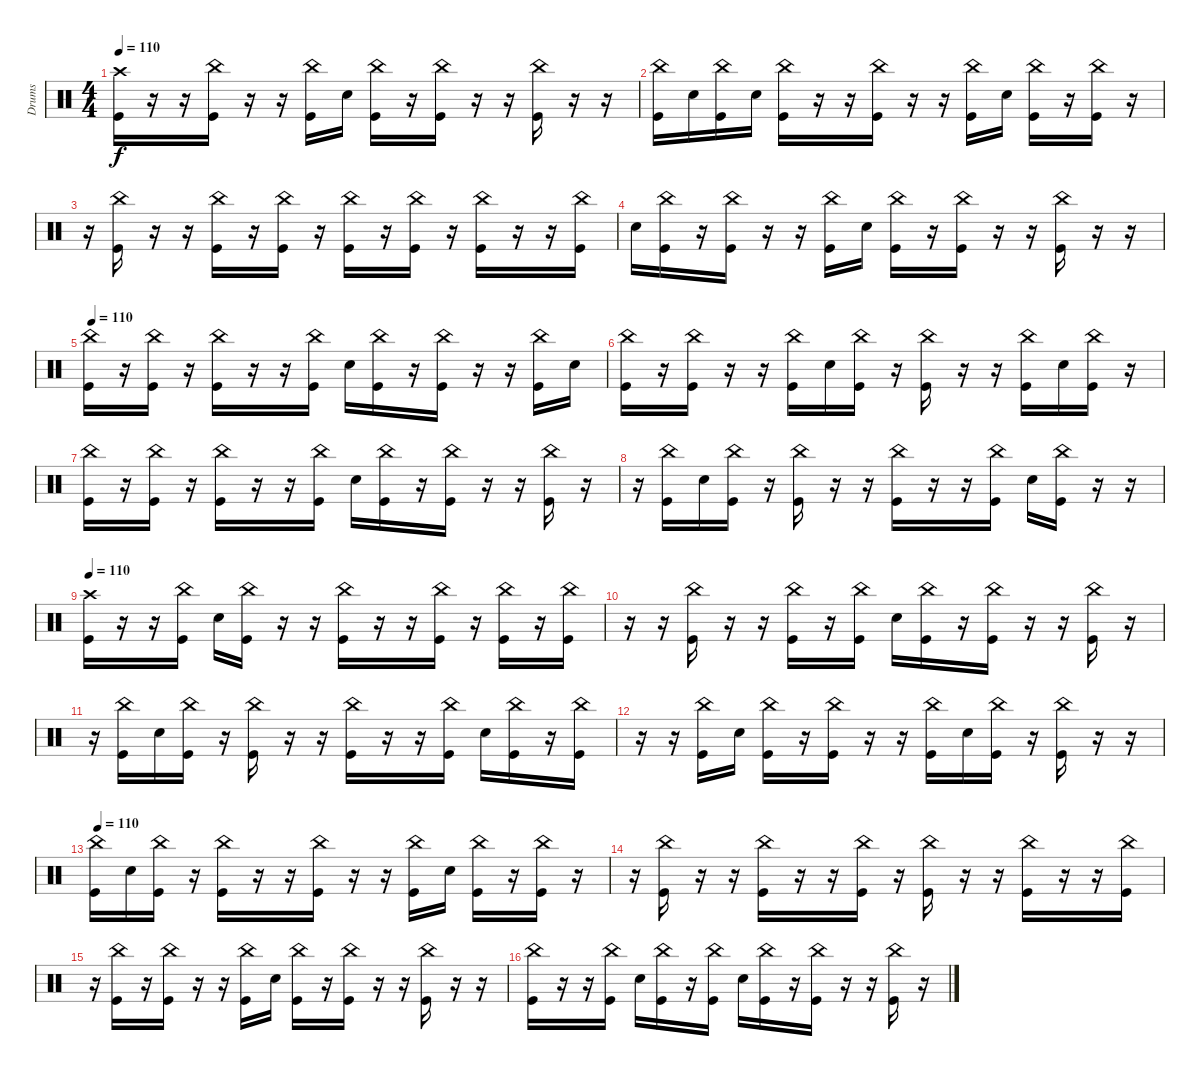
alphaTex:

\track ("Drums" "Drums") {instrument percussion}
\staff {score}
\articulation defaults
\ts (4 4)
\tempo 110
\clef neutral
\ks c
("Crash high (hit)" "Kick (hit)").16{dy f} r.16 r.16 ("China (hit)" "Kick (hit)").16 r.16 r.16 ("China (hit)" "Kick (hit)").16 "Snare (hit) 2".16 ("China (hit)" "Kick (hit)").16 r.16 ("China (hit)" "Kick (hit)").16 r.16 r.16 ("China (hit)" "Kick (hit)").16 r.16 r.16 |
("China (hit)" "Kick (hit)").16 "Snare (hit) 2".16 ("China (hit)" "Kick (hit)").16 "Snare (hit) 2".16 ("China (hit)" "Kick (hit)").16 r.16 r.16 ("China (hit)" "Kick (hit)").16 r.16 r.16 ("China (hit)" "Kick (hit)").16 "Snare (hit) 2".16 ("China (hit)" "Kick (hit)").16 r.16 ("China (hit)" "Kick (hit)").16 r.16 |
r.16 ("China (hit)" "Kick (hit)").16 r.16 r.16 ("China (hit)" "Kick (hit)").16 r.16 ("China (hit)" "Kick (hit)").16 r.16 ("China (hit)" "Kick (hit)").16 r.16 ("China (hit)" "Kick (hit)").16 r.16 ("China (hit)" "Kick (hit)").16 r.16 r.16 ("China (hit)" "Kick (hit)").16 |
"Snare (hit) 2".16 ("China (hit)" "Kick (hit)").16 r.16 ("China (hit)" "Kick (hit)").16 r.16 r.16 ("China (hit)" "Kick (hit)").16 "Snare (hit) 2".16 ("China (hit)" "Kick (hit)").16 r.16 ("China (hit)" "Kick (hit)").16 r.16 r.16 ("China (hit)" "Kick (hit)").16 r.16 r.16 |
\tempo 110
("China (hit)" "Kick (hit)").16 r.16 ("China (hit)" "Kick (hit)").16 r.16 ("China (hit)" "Kick (hit)").16 r.16 r.16 ("China (hit)" "Kick (hit)").16 "Snare (hit) 2".16 ("China (hit)" "Kick (hit)").16 r.16 ("China (hit)" "Kick (hit)").16 r.16 r.16 ("China (hit)" "Kick (hit)").16 "Snare (hit) 2".16 |
("China (hit)" "Kick (hit)").16 r.16 ("China (hit)" "Kick (hit)").16 r.16 r.16 ("China (hit)" "Kick (hit)").16 "Snare (hit) 2".16 ("China (hit)" "Kick (hit)").16 r.16 ("China (hit)" "Kick (hit)").16 r.16 r.16 ("China (hit)" "Kick (hit)").16 "Snare (hit) 2".16 ("China (hit)" "Kick (hit)").16 r.16 |
("China (hit)" "Kick (hit)").16 r.16 ("China (hit)" "Kick (hit)").16 r.16 ("China (hit)" "Kick (hit)").16 r.16 r.16 ("China (hit)" "Kick (hit)").16 "Snare (hit) 2".16 ("China (hit)" "Kick (hit)").16 r.16 ("China (hit)" "Kick (hit)").16 r.16 r.16 ("China (hit)" "Kick (hit)").16 r.16 |
r.16 ("China (hit)" "Kick (hit)").16 "Snare (hit) 2".16 ("China (hit)" "Kick (hit)").16 r.16 ("China (hit)" "Kick (hit)").16 r.16 r.16 ("China (hit)" "Kick (hit)").16 r.16 r.16 ("China (hit)" "Kick (hit)").16 "Snare (hit) 2".16 ("China (hit)" "Kick (hit)").16 r.16 r.16 |
\tempo 110
("Crash high (hit)" "Kick (hit)").16 r.16 r.16 ("China (hit)" "Kick (hit)").16 "Snare (hit) 2".16 ("China (hit)" "Kick (hit)").16 r.16 r.16 ("China (hit)" "Kick (hit)").16 r.16 r.16 ("China (hit)" "Kick (hit)").16 r.16 ("China (hit)" "Kick (hit)").16 r.16 ("China (hit)" "Kick (hit)").16 |
r.16 r.16 ("China (hit)" "Kick (hit)").16 r.16 r.16 ("China (hit)" "Kick (hit)").16 r.16 ("China (hit)" "Kick (hit)").16 "Snare (hit) 2".16 ("China (hit)" "Kick (hit)").16 r.16 ("China (hit)" "Kick (hit)").16 r.16 r.16 ("China (hit)" "Kick (hit)").16 r.16 |
r.16 ("China (hit)" "Kick (hit)").16 "Snare (hit) 2".16 ("China (hit)" "Kick (hit)").16 r.16 ("China (hit)" "Kick (hit)").16 r.16 r.16 ("China (hit)" "Kick (hit)").16 r.16 r.16 ("China (hit)" "Kick (hit)").16 "Snare (hit) 2".16 ("China (hit)" "Kick (hit)").16 r.16 ("China (hit)" "Kick (hit)").16 |
r.16 r.16 ("China (hit)" "Kick (hit)").16 "Snare (hit) 2".16 ("China (hit)" "Kick (hit)").16 r.16 ("China (hit)" "Kick (hit)").16 r.16 r.16 ("China (hit)" "Kick (hit)").16 "Snare (hit) 2".16 ("China (hit)" "Kick (hit)").16 r.16 ("China (hit)" "Kick (hit)").16 r.16 r.16 |
\tempo 110
("China (hit)" "Kick (hit)").16 "Snare (hit) 2".16 ("China (hit)" "Kick (hit)").16 r.16 ("China (hit)" "Kick (hit)").16 r.16 r.16 ("China (hit)" "Kick (hit)").16 r.16 r.16 ("China (hit)" "Kick (hit)").16 "Snare (hit) 2".16 ("China (hit)" "Kick (hit)").16 r.16 ("China (hit)" "Kick (hit)").16 r.16 |
r.16 ("China (hit)" "Kick (hit)").16 r.16 r.16 ("China (hit)" "Kick (hit)").16 r.16 r.16 ("China (hit)" "Kick (hit)").16 r.16 ("China (hit)" "Kick (hit)").16 r.16 r.16 ("China (hit)" "Kick (hit)").16 r.16 r.16 ("China (hit)" "Kick (hit)").16 |
r.16 ("China (hit)" "Kick (hit)").16 r.16 ("China (hit)" "Kick (hit)").16 r.16 r.16 ("China (hit)" "Kick (hit)").16 "Snare (hit) 2".16 ("China (hit)" "Kick (hit)").16 r.16 ("China (hit)" "Kick (hit)").16 r.16 r.16 ("China (hit)" "Kick (hit)").16 r.16 r.16 |
("China (hit)" "Kick (hit)").16 r.16 r.16 ("China (hit)" "Kick (hit)").16 "Snare (hit) 2".16 ("China (hit)" "Kick (hit)").16 r.16 ("China (hit)" "Kick (hit)").16 "Snare (hit) 2".16 ("China (hit)" "Kick (hit)").16 r.16 ("China (hit)" "Kick (hit)").16 r.16 r.16 ("China (hit)" "Kick (hit)").16 r.16
